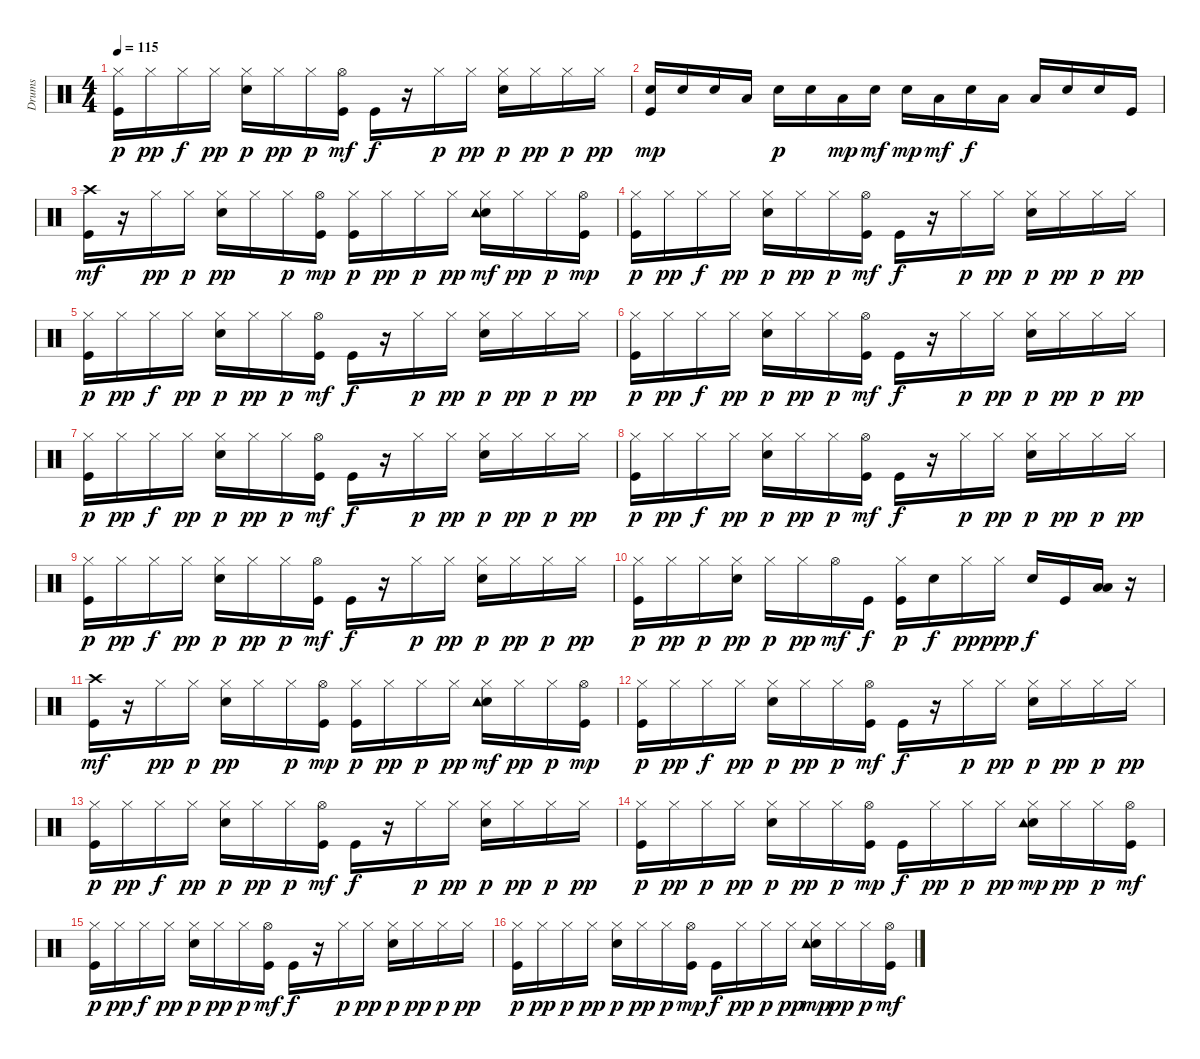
\track ("Drums  " "Drums  ") {instrument percussion}
\staff {score}
\articulation defaults
\ts (4 4)
\tempo 115
\clef neutral
\ks c
("Kick (hit)" "Hi-Hat (closed)").16{dy p} "Hi-Hat (closed)".16{dy pp} "Hi-Hat (closed)".16{dy f} "Hi-Hat (closed)".16{dy pp} ("Snare (hit) 2" "Hi-Hat (closed)").16{dy p} "Hi-Hat (closed)".16{dy pp} "Hi-Hat (closed)".16{dy p} ("Kick (hit)" "Hi-Hat (open)").16{dy mf} "Kick (hit)".16{dy f} r.16 "Hi-Hat (closed)".16{dy p} "Hi-Hat (closed)".16{dy pp} ("Snare (hit) 2" "Hi-Hat (closed)").16{dy p} "Hi-Hat (closed)".16{dy pp} "Hi-Hat (closed)".16{dy p} "Hi-Hat (closed)".16{dy pp} |
("Kick (hit)" "Snare (hit) 2").16{dy mp} "Snare (hit) 2".16 "Snare (hit) 2".16 "Low Tom (hit)".16 "Snare (hit) 2".16{dy p} "Snare (hit) 2".16 "Low Floor Tom (hit)".16{dy mp} "Snare (hit) 2".16{dy mf} "Snare (hit) 2".16{dy mp} "Low Floor Tom (hit)".16{dy mf} "Snare (hit) 2".16{dy f} "Low Floor Tom (hit)".16 "Low Floor Tom (hit)".16 "Snare (hit) 2".16 "Snare (hit) 2".16 "Kick (hit)".16 |
("Kick (hit)" "Crash high (hit)").16{dy mf} r.16 "Hi-Hat (closed)".16{dy pp} "Hi-Hat (closed)".16{dy p} ("Snare (hit) 2" "Hi-Hat (closed)").16{dy pp} "Hi-Hat (closed)".16 "Hi-Hat (closed)".16{dy p} ("Kick (hit)" "Hi-Hat (open)").16{dy mp} ("Kick (hit)" "Hi-Hat (closed)").16{dy p} "Hi-Hat (closed)".16{dy pp} "Hi-Hat (closed)".16{dy p} "Hi-Hat (closed)".16{dy pp} ("Snare (hit) 2" "Hi-Hat (closed)" "Tambourine (hit)").16{dy mf} "Hi-Hat (closed)".16{dy pp} "Hi-Hat (closed)".16{dy p} ("Kick (hit)" "Hi-Hat (open)").16{dy mp} |
("Kick (hit)" "Hi-Hat (closed)").16{dy p} "Hi-Hat (closed)".16{dy pp} "Hi-Hat (closed)".16{dy f} "Hi-Hat (closed)".16{dy pp} ("Snare (hit) 2" "Hi-Hat (closed)").16{dy p} "Hi-Hat (closed)".16{dy pp} "Hi-Hat (closed)".16{dy p} ("Kick (hit)" "Hi-Hat (open)").16{dy mf} "Kick (hit)".16{dy f} r.16 "Hi-Hat (closed)".16{dy p} "Hi-Hat (closed)".16{dy pp} ("Snare (hit) 2" "Hi-Hat (closed)").16{dy p} "Hi-Hat (closed)".16{dy pp} "Hi-Hat (closed)".16{dy p} "Hi-Hat (closed)".16{dy pp} |
("Kick (hit)" "Hi-Hat (closed)").16{dy p} "Hi-Hat (closed)".16{dy pp} "Hi-Hat (closed)".16{dy f} "Hi-Hat (closed)".16{dy pp} ("Snare (hit) 2" "Hi-Hat (closed)").16{dy p} "Hi-Hat (closed)".16{dy pp} "Hi-Hat (closed)".16{dy p} ("Kick (hit)" "Hi-Hat (open)").16{dy mf} "Kick (hit)".16{dy f} r.16 "Hi-Hat (closed)".16{dy p} "Hi-Hat (closed)".16{dy pp} ("Snare (hit) 2" "Hi-Hat (closed)").16{dy p} "Hi-Hat (closed)".16{dy pp} "Hi-Hat (closed)".16{dy p} "Hi-Hat (closed)".16{dy pp} |
("Kick (hit)" "Hi-Hat (closed)").16{dy p} "Hi-Hat (closed)".16{dy pp} "Hi-Hat (closed)".16{dy f} "Hi-Hat (closed)".16{dy pp} ("Snare (hit) 2" "Hi-Hat (closed)").16{dy p} "Hi-Hat (closed)".16{dy pp} "Hi-Hat (closed)".16{dy p} ("Kick (hit)" "Hi-Hat (open)").16{dy mf} "Kick (hit)".16{dy f} r.16 "Hi-Hat (closed)".16{dy p} "Hi-Hat (closed)".16{dy pp} ("Snare (hit) 2" "Hi-Hat (closed)").16{dy p} "Hi-Hat (closed)".16{dy pp} "Hi-Hat (closed)".16{dy p} "Hi-Hat (closed)".16{dy pp} |
("Kick (hit)" "Hi-Hat (closed)").16{dy p} "Hi-Hat (closed)".16{dy pp} "Hi-Hat (closed)".16{dy f} "Hi-Hat (closed)".16{dy pp} ("Snare (hit) 2" "Hi-Hat (closed)").16{dy p} "Hi-Hat (closed)".16{dy pp} "Hi-Hat (closed)".16{dy p} ("Kick (hit)" "Hi-Hat (open)").16{dy mf} "Kick (hit)".16{dy f} r.16 "Hi-Hat (closed)".16{dy p} "Hi-Hat (closed)".16{dy pp} ("Snare (hit) 2" "Hi-Hat (closed)").16{dy p} "Hi-Hat (closed)".16{dy pp} "Hi-Hat (closed)".16{dy p} "Hi-Hat (closed)".16{dy pp} |
("Kick (hit)" "Hi-Hat (closed)").16{dy p} "Hi-Hat (closed)".16{dy pp} "Hi-Hat (closed)".16{dy f} "Hi-Hat (closed)".16{dy pp} ("Snare (hit) 2" "Hi-Hat (closed)").16{dy p} "Hi-Hat (closed)".16{dy pp} "Hi-Hat (closed)".16{dy p} ("Kick (hit)" "Hi-Hat (open)").16{dy mf} "Kick (hit)".16{dy f} r.16 "Hi-Hat (closed)".16{dy p} "Hi-Hat (closed)".16{dy pp} ("Snare (hit) 2" "Hi-Hat (closed)").16{dy p} "Hi-Hat (closed)".16{dy pp} "Hi-Hat (closed)".16{dy p} "Hi-Hat (closed)".16{dy pp} |
("Kick (hit)" "Hi-Hat (closed)").16{dy p} "Hi-Hat (closed)".16{dy pp} "Hi-Hat (closed)".16{dy f} "Hi-Hat (closed)".16{dy pp} ("Snare (hit) 2" "Hi-Hat (closed)").16{dy p} "Hi-Hat (closed)".16{dy pp} "Hi-Hat (closed)".16{dy p} ("Kick (hit)" "Hi-Hat (open)").16{dy mf} "Kick (hit)".16{dy f} r.16 "Hi-Hat (closed)".16{dy p} "Hi-Hat (closed)".16{dy pp} ("Snare (hit) 2" "Hi-Hat (closed)").16{dy p} "Hi-Hat (closed)".16{dy pp} "Hi-Hat (closed)".16{dy p} "Hi-Hat (closed)".16{dy pp} |
("Kick (hit)" "Hi-Hat (closed)").16{dy p} "Hi-Hat (closed)".16{dy pp} "Hi-Hat (closed)".16{dy p} ("Snare (hit) 2" "Hi-Hat (closed)").16{dy pp} "Hi-Hat (closed)".16{dy p} "Hi-Hat (closed)".16{dy pp} "Hi-Hat (open)".16{dy mf} "Kick (hit)".16{dy f} ("Kick (hit)" "Hi-Hat (closed)").16{dy p} "Snare (hit) 2".16{dy f} "Hi-Hat (closed)".16{dy pp} "Hi-Hat (closed)".16{dy ppp} "Snare (hit) 2".16{dy f} "Kick (hit)".16 ("Low Floor Tom (hit)" "Low Tom (hit)").16 r.16 |
("Kick (hit)" "Crash high (hit)").16{dy mf} r.16 "Hi-Hat (closed)".16{dy pp} "Hi-Hat (closed)".16{dy p} ("Snare (hit) 2" "Hi-Hat (closed)").16{dy pp} "Hi-Hat (closed)".16 "Hi-Hat (closed)".16{dy p} ("Kick (hit)" "Hi-Hat (open)").16{dy mp} ("Kick (hit)" "Hi-Hat (closed)").16{dy p} "Hi-Hat (closed)".16{dy pp} "Hi-Hat (closed)".16{dy p} "Hi-Hat (closed)".16{dy pp} ("Snare (hit) 2" "Hi-Hat (closed)" "Tambourine (hit)").16{dy mf} "Hi-Hat (closed)".16{dy pp} "Hi-Hat (closed)".16{dy p} ("Kick (hit)" "Hi-Hat (open)").16{dy mp} |
("Kick (hit)" "Hi-Hat (closed)").16{dy p} "Hi-Hat (closed)".16{dy pp} "Hi-Hat (closed)".16{dy f} "Hi-Hat (closed)".16{dy pp} ("Snare (hit) 2" "Hi-Hat (closed)").16{dy p} "Hi-Hat (closed)".16{dy pp} "Hi-Hat (closed)".16{dy p} ("Kick (hit)" "Hi-Hat (open)").16{dy mf} "Kick (hit)".16{dy f} r.16 "Hi-Hat (closed)".16{dy p} "Hi-Hat (closed)".16{dy pp} ("Snare (hit) 2" "Hi-Hat (closed)").16{dy p} "Hi-Hat (closed)".16{dy pp} "Hi-Hat (closed)".16{dy p} "Hi-Hat (closed)".16{dy pp} |
("Kick (hit)" "Hi-Hat (closed)").16{dy p} "Hi-Hat (closed)".16{dy pp} "Hi-Hat (closed)".16{dy f} "Hi-Hat (closed)".16{dy pp} ("Snare (hit) 2" "Hi-Hat (closed)").16{dy p} "Hi-Hat (closed)".16{dy pp} "Hi-Hat (closed)".16{dy p} ("Kick (hit)" "Hi-Hat (open)").16{dy mf} "Kick (hit)".16{dy f} r.16 "Hi-Hat (closed)".16{dy p} "Hi-Hat (closed)".16{dy pp} ("Snare (hit) 2" "Hi-Hat (closed)").16{dy p} "Hi-Hat (closed)".16{dy pp} "Hi-Hat (closed)".16{dy p} "Hi-Hat (closed)".16{dy pp} |
("Kick (hit)" "Hi-Hat (closed)").16{dy p} "Hi-Hat (closed)".16{dy pp} "Hi-Hat (closed)".16{dy p} "Hi-Hat (closed)".16{dy pp} ("Snare (hit) 2" "Hi-Hat (closed)").16{dy p} "Hi-Hat (closed)".16{dy pp} "Hi-Hat (closed)".16{dy p} ("Kick (hit)" "Hi-Hat (open)").16{dy mp} "Kick (hit)".16{dy f} "Hi-Hat (closed)".16{dy pp} "Hi-Hat (closed)".16{dy p} "Hi-Hat (closed)".16{dy pp} ("Snare (hit) 2" "Hi-Hat (closed)" "Tambourine (hit)").16{dy mp} "Hi-Hat (closed)".16{dy pp} "Hi-Hat (closed)".16{dy p} ("Kick (hit)" "Hi-Hat (open)").16{dy mf} |
("Kick (hit)" "Hi-Hat (closed)").16{dy p} "Hi-Hat (closed)".16{dy pp} "Hi-Hat (closed)".16{dy f} "Hi-Hat (closed)".16{dy pp} ("Snare (hit) 2" "Hi-Hat (closed)").16{dy p} "Hi-Hat (closed)".16{dy pp} "Hi-Hat (closed)".16{dy p} ("Kick (hit)" "Hi-Hat (open)").16{dy mf} "Kick (hit)".16{dy f} r.16 "Hi-Hat (closed)".16{dy p} "Hi-Hat (closed)".16{dy pp} ("Snare (hit) 2" "Hi-Hat (closed)").16{dy p} "Hi-Hat (closed)".16{dy pp} "Hi-Hat (closed)".16{dy p} "Hi-Hat (closed)".16{dy pp} |
("Kick (hit)" "Hi-Hat (closed)").16{dy p} "Hi-Hat (closed)".16{dy pp} "Hi-Hat (closed)".16{dy p} "Hi-Hat (closed)".16{dy pp} ("Snare (hit) 2" "Hi-Hat (closed)").16{dy p} "Hi-Hat (closed)".16{dy pp} "Hi-Hat (closed)".16{dy p} ("Kick (hit)" "Hi-Hat (open)").16{dy mp} "Kick (hit)".16{dy f} "Hi-Hat (closed)".16{dy pp} "Hi-Hat (closed)".16{dy p} "Hi-Hat (closed)".16{dy pp} ("Snare (hit) 2" "Hi-Hat (closed)" "Tambourine (hit)").16{dy mp} "Hi-Hat (closed)".16{dy pp} "Hi-Hat (closed)".16{dy p} ("Kick (hit)" "Hi-Hat (open)").16{dy mf}
